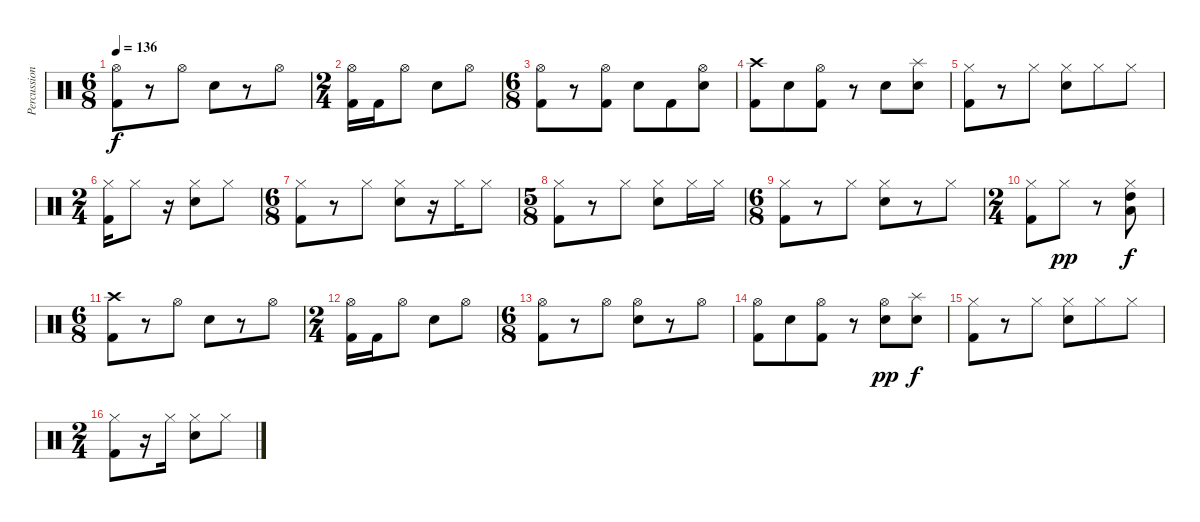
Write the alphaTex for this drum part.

\track ("Percussion" "Percussion") {instrument percussion}
\staff {score}
\articulation defaults
\ts (6 8)
\tempo 136
\clef neutral
\ks c
("Hi-Hat (open)" "Kick (hit) 2").8{dy f} r.8 "Hi-Hat (open)".8 "Snare (hit) 2".8 r.8 "Hi-Hat (open)".8 |
\ts (2 4)
("Hi-Hat (open)" "Kick (hit) 2").16 "Kick (hit) 2".16 "Hi-Hat (open)".8 "Snare (hit) 2".8 "Hi-Hat (open)".8 |
\ts (6 8)
("Hi-Hat (open)" "Kick (hit) 2").8 r.8 ("Hi-Hat (open)" "Kick (hit) 2").8 "Snare (hit) 2".8 "Kick (hit) 2".8 ("Hi-Hat (open)" "Snare (hit) 2").8 |
("Crash high (hit)" "Kick (hit) 2").8 "Snare (hit) 2".8 ("Hi-Hat (open)" "Kick (hit) 2").8 r.8 "Snare (hit) 2".8 ("Splash (hit)" "Snare (hit) 2").8 |
("Hi-Hat (closed)" "Kick (hit) 2").8 r.8 "Hi-Hat (closed)".8 ("Hi-Hat (closed)" "Snare (hit) 2").8 "Hi-Hat (closed)".8 "Hi-Hat (closed)".8 |
\ts (2 4)
("Hi-Hat (closed)" "Kick (hit) 2").16 "Hi-Hat (closed)".8 r.16 ("Hi-Hat (closed)" "Snare (hit) 2").8 "Hi-Hat (closed)".8 |
\ts (6 8)
("Hi-Hat (closed)" "Kick (hit) 2").8 r.8 "Hi-Hat (closed)".8 ("Hi-Hat (closed)" "Snare (hit) 2").8 r.16 "Hi-Hat (closed)".16 "Hi-Hat (closed)".8 |
\ts (5 8)
("Hi-Hat (closed)" "Kick (hit) 2").8 r.8 "Hi-Hat (closed)".8 ("Hi-Hat (closed)" "Snare (hit) 2").8 "Hi-Hat (closed)".16 "Hi-Hat (closed)".16 |
\ts (6 8)
("Hi-Hat (closed)" "Kick (hit) 2").8 r.8 "Hi-Hat (closed)".8 ("Hi-Hat (closed)" "Snare (hit) 2").8 r.8 "Hi-Hat (closed)".8 |
\ts (2 4)
("Hi-Hat (closed)" "Kick (hit) 2").8 "Hi-Hat (closed)".8{dy pp} r.8 ("Hi-Hat (closed)" "High Tom (hit)" "Low Tom (hit)").8{dy f} |
\ts (6 8)
("Crash high (hit)" "Kick (hit) 2").8 r.8 "Hi-Hat (open)".8 "Snare (hit) 2".8 r.8 "Hi-Hat (open)".8 |
\ts (2 4)
("Hi-Hat (open)" "Kick (hit) 2").16 "Kick (hit) 2".16 "Hi-Hat (open)".8 "Snare (hit) 2".8 "Hi-Hat (open)".8 |
\ts (6 8)
("Hi-Hat (open)" "Kick (hit) 2").8 r.8 "Hi-Hat (open)".8 ("Hi-Hat (open)" "Snare (hit) 2").8 r.8 "Hi-Hat (open)".8 |
("Hi-Hat (open)" "Kick (hit) 2").8 "Snare (hit) 2".8 ("Hi-Hat (open)" "Kick (hit) 2").8 r.8 ("Hi-Hat (open)" "Snare (hit) 2").8{dy pp} ("Splash (hit)" "Snare (hit) 2").8{dy f} |
("Hi-Hat (closed)" "Kick (hit) 2").8 r.8 "Hi-Hat (closed)".8 ("Hi-Hat (closed)" "Snare (hit) 2").8 "Hi-Hat (closed)".8 "Hi-Hat (closed)".8 |
\ts (2 4)
("Hi-Hat (closed)" "Kick (hit) 2").8 r.16 "Hi-Hat (closed)".16 ("Hi-Hat (closed)" "Snare (hit) 2").8 "Hi-Hat (closed)".8
